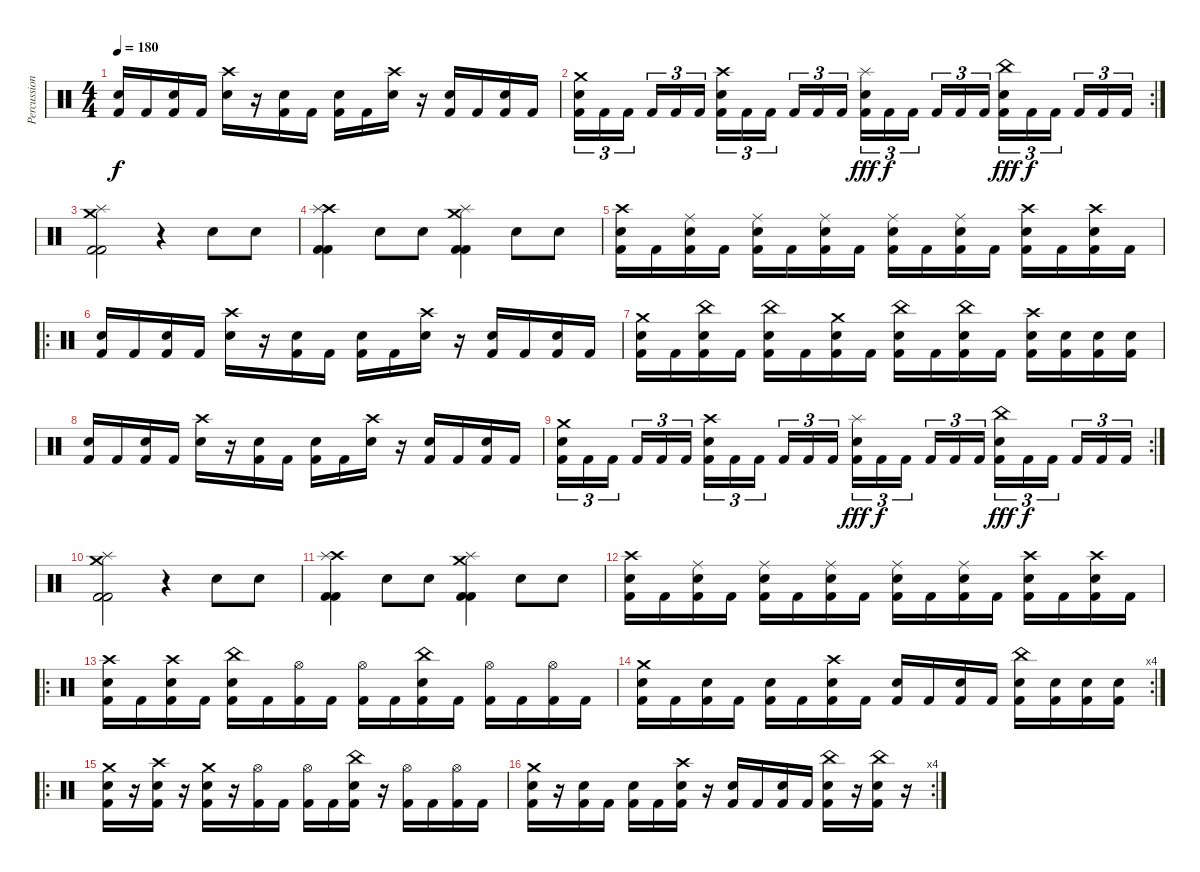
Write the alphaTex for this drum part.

\track ("Percussion" "Percussion") {instrument percussion}
\staff {score}
\articulation defaults
\ts (4 4)
\tempo 180
\clef neutral
\ks c
("Electric Snare (hit)" "Kick (hit) 2").16{dy f} "Kick (hit) 2".16 ("Electric Snare (hit)" "Kick (hit) 2").16 "Kick (hit) 2".16 ("Crash high (hit)" "Electric Snare (hit)").16 r.16 ("Electric Snare (hit)" "Kick (hit) 2").16 "Kick (hit) 2".16 ("Electric Snare (hit)" "Kick (hit) 2").16 "Kick (hit) 2".16 ("Crash high (hit)" "Electric Snare (hit)").16 r.16 ("Electric Snare (hit)" "Kick (hit) 2").16 "Kick (hit) 2".16 ("Electric Snare (hit)" "Kick (hit) 2").16 "Kick (hit) 2".16 |
\rc 2
("Crash medium (hit)" "Electric Snare (hit)" "Kick (hit) 2").16{tu (3 2)} "Kick (hit) 2".16{tu (3 2)} "Kick (hit) 2".16{tu (3 2)} "Kick (hit) 2".16{tu (3 2)} "Kick (hit) 2".16{tu (3 2)} "Kick (hit) 2".16{tu (3 2)} ("Crash high (hit)" "Electric Snare (hit)" "Kick (hit) 2").16{tu (3 2)} "Kick (hit) 2".16{tu (3 2)} "Kick (hit) 2".16{tu (3 2)} "Kick (hit) 2".16{tu (3 2)} "Kick (hit) 2".16{tu (3 2)} "Kick (hit) 2".16{tu (3 2)} ("Splash (hit)" "Electric Snare (hit)" "Kick (hit) 2").16{tu (3 2) dy fff} "Kick (hit) 2".16{tu (3 2) dy f} "Kick (hit) 2".16{tu (3 2)} "Kick (hit) 2".16{tu (3 2)} "Kick (hit) 2".16{tu (3 2)} "Kick (hit) 2".16{tu (3 2)} ("China (hit)" "Electric Snare (hit)" "Kick (hit) 2").16{tu (3 2) dy fff} "Kick (hit) 2".16{tu (3 2) dy f} "Kick (hit) 2".16{tu (3 2)} "Kick (hit) 2".16{tu (3 2)} "Kick (hit) 2".16{tu (3 2)} "Kick (hit) 2".16{tu (3 2)} |
("Crash medium (hit)" "Splash (hit)" "Kick (hit) 2" "Kick (hit) 2").2 r.4 "Electric Snare (hit)".8 "Electric Snare (hit)".8 |
("Crash high (hit)" "Splash (hit)" "Kick (hit) 2" "Kick (hit) 2").4 "Electric Snare (hit)".8 "Electric Snare (hit)".8 ("Crash medium (hit)" "Splash (hit)" "Kick (hit) 2" "Kick (hit) 2").4 "Electric Snare (hit)".8 "Electric Snare (hit)".8 |
("Crash high (hit)" "Electric Snare (hit)" "Kick (hit) 2").16 "Kick (hit) 2".16 ("Ride (middle)" "Electric Snare (hit)" "Kick (hit) 2").16 "Kick (hit) 2".16 ("Ride (middle)" "Electric Snare (hit)" "Kick (hit) 2").16 "Kick (hit) 2".16 ("Ride (middle)" "Electric Snare (hit)" "Kick (hit) 2").16 "Kick (hit) 2".16 ("Ride (middle)" "Electric Snare (hit)" "Kick (hit) 2").16 "Kick (hit) 2".16 ("Ride (middle)" "Electric Snare (hit)" "Kick (hit) 2").16 "Kick (hit) 2".16 ("Crash high (hit)" "Electric Snare (hit)" "Kick (hit) 2").16 "Kick (hit) 2".16 ("Crash high (hit)" "Electric Snare (hit)" "Kick (hit) 2").16 "Kick (hit) 2".16 |
\ro
("Electric Snare (hit)" "Kick (hit) 2").16 "Kick (hit) 2".16 ("Electric Snare (hit)" "Kick (hit) 2").16 "Kick (hit) 2".16 ("Crash high (hit)" "Electric Snare (hit)").16 r.16 ("Electric Snare (hit)" "Kick (hit) 2").16 "Kick (hit) 2".16 ("Electric Snare (hit)" "Kick (hit) 2").16 "Kick (hit) 2".16 ("Crash high (hit)" "Electric Snare (hit)").16 r.16 ("Electric Snare (hit)" "Kick (hit) 2").16 "Kick (hit) 2".16 ("Electric Snare (hit)" "Kick (hit) 2").16 "Kick (hit) 2".16 |
("Crash medium (hit)" "Electric Snare (hit)" "Kick (hit) 2").16 "Kick (hit) 2".16 ("China (hit)" "Electric Snare (hit)" "Kick (hit) 2").16 "Kick (hit) 2".16 ("China (hit)" "Electric Snare (hit)" "Kick (hit) 2").16 "Kick (hit) 2".16 ("Crash medium (hit)" "Electric Snare (hit)" "Kick (hit) 2").16 "Kick (hit) 2".16 ("China (hit)" "Electric Snare (hit)" "Kick (hit) 2").16 "Kick (hit) 2".16 ("China (hit)" "Electric Snare (hit)" "Kick (hit) 2").16 "Kick (hit) 2".16 ("Crash high (hit)" "Electric Snare (hit)" "Kick (hit) 2").16 ("Electric Snare (hit)" "Kick (hit) 2").16 ("Electric Snare (hit)" "Kick (hit) 2").16 ("Electric Snare (hit)" "Kick (hit) 2").16 |
("Electric Snare (hit)" "Kick (hit) 2").16 "Kick (hit) 2".16 ("Electric Snare (hit)" "Kick (hit) 2").16 "Kick (hit) 2".16 ("Crash high (hit)" "Electric Snare (hit)").16 r.16 ("Electric Snare (hit)" "Kick (hit) 2").16 "Kick (hit) 2".16 ("Electric Snare (hit)" "Kick (hit) 2").16 "Kick (hit) 2".16 ("Crash high (hit)" "Electric Snare (hit)").16 r.16 ("Electric Snare (hit)" "Kick (hit) 2").16 "Kick (hit) 2".16 ("Electric Snare (hit)" "Kick (hit) 2").16 "Kick (hit) 2".16 |
\rc 2
("Crash medium (hit)" "Electric Snare (hit)" "Kick (hit) 2").16{tu (3 2)} "Kick (hit) 2".16{tu (3 2)} "Kick (hit) 2".16{tu (3 2)} "Kick (hit) 2".16{tu (3 2)} "Kick (hit) 2".16{tu (3 2)} "Kick (hit) 2".16{tu (3 2)} ("Crash high (hit)" "Electric Snare (hit)" "Kick (hit) 2").16{tu (3 2)} "Kick (hit) 2".16{tu (3 2)} "Kick (hit) 2".16{tu (3 2)} "Kick (hit) 2".16{tu (3 2)} "Kick (hit) 2".16{tu (3 2)} "Kick (hit) 2".16{tu (3 2)} ("Splash (hit)" "Electric Snare (hit)" "Kick (hit) 2").16{tu (3 2) dy fff} "Kick (hit) 2".16{tu (3 2) dy f} "Kick (hit) 2".16{tu (3 2)} "Kick (hit) 2".16{tu (3 2)} "Kick (hit) 2".16{tu (3 2)} "Kick (hit) 2".16{tu (3 2)} ("China (hit)" "Electric Snare (hit)" "Kick (hit) 2").16{tu (3 2) dy fff} "Kick (hit) 2".16{tu (3 2) dy f} "Kick (hit) 2".16{tu (3 2)} "Kick (hit) 2".16{tu (3 2)} "Kick (hit) 2".16{tu (3 2)} "Kick (hit) 2".16{tu (3 2)} |
("Crash medium (hit)" "Splash (hit)" "Kick (hit) 2" "Kick (hit) 2").2 r.4 "Electric Snare (hit)".8 "Electric Snare (hit)".8 |
("Crash high (hit)" "Splash (hit)" "Kick (hit) 2" "Kick (hit) 2").4 "Electric Snare (hit)".8 "Electric Snare (hit)".8 ("Crash medium (hit)" "Splash (hit)" "Kick (hit) 2" "Kick (hit) 2").4 "Electric Snare (hit)".8 "Electric Snare (hit)".8 |
("Crash high (hit)" "Electric Snare (hit)" "Kick (hit) 2").16 "Kick (hit) 2".16 ("Ride (middle)" "Electric Snare (hit)" "Kick (hit) 2").16 "Kick (hit) 2".16 ("Ride (middle)" "Electric Snare (hit)" "Kick (hit) 2").16 "Kick (hit) 2".16 ("Ride (middle)" "Electric Snare (hit)" "Kick (hit) 2").16 "Kick (hit) 2".16 ("Ride (middle)" "Electric Snare (hit)" "Kick (hit) 2").16 "Kick (hit) 2".16 ("Ride (middle)" "Electric Snare (hit)" "Kick (hit) 2").16 "Kick (hit) 2".16 ("Crash high (hit)" "Electric Snare (hit)" "Kick (hit) 2").16 "Kick (hit) 2".16 ("Crash high (hit)" "Electric Snare (hit)" "Kick (hit) 2").16 "Kick (hit) 2".16 |
\ro
("Crash high (hit)" "Electric Snare (hit)" "Kick (hit) 2").16 "Kick (hit) 2".16 ("Crash high (hit)" "Electric Snare (hit)" "Kick (hit) 2").16 "Kick (hit) 2".16 ("China (hit)" "Electric Snare (hit)" "Kick (hit) 2").16 "Kick (hit) 2".16 ("Hi-Hat (open)" "Kick (hit) 2").16 "Kick (hit) 2".16 ("Hi-Hat (open)" "Kick (hit) 2").16 "Kick (hit) 2".16 ("China (hit)" "Electric Snare (hit)" "Kick (hit) 2").16 "Kick (hit) 2".16 ("Hi-Hat (open)" "Kick (hit) 2").16 "Kick (hit) 2".16 ("Hi-Hat (open)" "Kick (hit) 2").16 "Kick (hit) 2".16 |
\rc 4
("Crash medium (hit)" "Electric Snare (hit)" "Kick (hit) 2").16 "Kick (hit) 2".16 ("Electric Snare (hit)" "Kick (hit) 2").16 "Kick (hit) 2".16 ("Electric Snare (hit)" "Kick (hit) 2").16 "Kick (hit) 2".16 ("Crash high (hit)" "Electric Snare (hit)" "Kick (hit) 2").16 "Kick (hit) 2".16 ("Electric Snare (hit)" "Kick (hit) 2").16 "Kick (hit) 2".16 ("Electric Snare (hit)" "Kick (hit) 2").16 "Kick (hit) 2".16 ("China (hit)" "Electric Snare (hit)" "Kick (hit) 2").16 ("Electric Snare (hit)" "Kick (hit) 2").16 ("Electric Snare (hit)" "Kick (hit) 2").16 ("Electric Snare (hit)" "Kick (hit) 2").16 |
\ro
("Crash medium (hit)" "Electric Snare (hit)" "Kick (hit) 2").16 r.16 ("Crash high (hit)" "Electric Snare (hit)" "Kick (hit) 2").16 r.16 ("Crash medium (hit)" "Electric Snare (hit)" "Kick (hit) 2").16 r.16 ("Hi-Hat (open)" "Kick (hit) 2").16 "Kick (hit) 2".16 ("Hi-Hat (open)" "Kick (hit) 2").16 "Kick (hit) 2".16 ("China (hit)" "Electric Snare (hit)" "Kick (hit) 2").16 r.16 ("Hi-Hat (open)" "Kick (hit) 2").16 "Kick (hit) 2".16 ("Hi-Hat (open)" "Kick (hit) 2").16 "Kick (hit) 2".16 |
\rc 4
("Crash medium (hit)" "Electric Snare (hit)" "Kick (hit) 2").16 r.16 ("Electric Snare (hit)" "Kick (hit) 2").16 "Kick (hit) 2".16 ("Electric Snare (hit)" "Kick (hit) 2").16 "Kick (hit) 2".16 ("Crash high (hit)" "Electric Snare (hit)" "Kick (hit) 2").16 r.16 ("Electric Snare (hit)" "Kick (hit) 2").16 "Kick (hit) 2".16 ("Electric Snare (hit)" "Kick (hit) 2").16 "Kick (hit) 2".16 ("China (hit)" "Electric Snare (hit)" "Kick (hit) 2").16 r.16 ("China (hit)" "Electric Snare (hit)" "Kick (hit) 2").16 r.16
